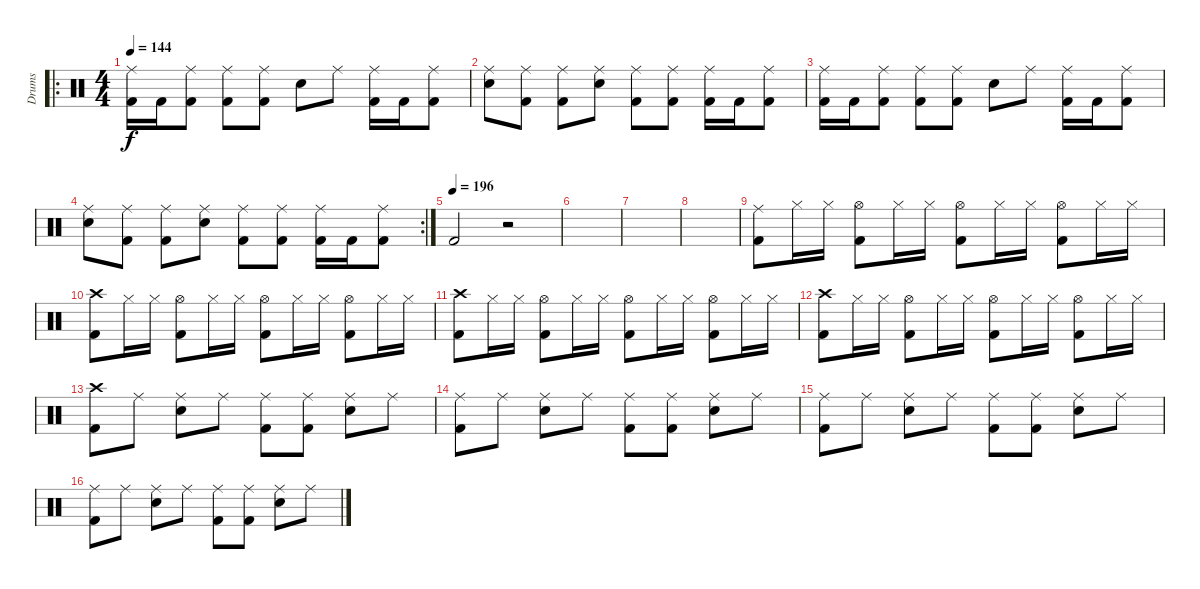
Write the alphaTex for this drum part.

\track ("Drums" "Drums") {instrument percussion}
\staff {score}
\articulation defaults
\ro
\ts (4 4)
\tempo 144
\clef neutral
\ks c
("Kick (hit) 2" "Ride (middle)").16{dy f} "Kick (hit) 2".16 ("Kick (hit) 2" "Ride (middle)").8 ("Kick (hit) 2" "Ride (middle)").8 ("Kick (hit) 2" "Ride (middle)").8 "Snare (hit) 2".8 "Ride (middle)".8 ("Kick (hit) 2" "Ride (middle)").16 "Kick (hit) 2".16 ("Kick (hit) 2" "Ride (middle)").8 |
("Snare (hit) 2" "Ride (middle)").8 ("Kick (hit) 2" "Ride (middle)").8 ("Kick (hit) 2" "Ride (middle)").8 ("Snare (hit) 2" "Ride (middle)").8 ("Kick (hit) 2" "Ride (middle)").8 ("Kick (hit) 2" "Ride (middle)").8 ("Kick (hit) 2" "Ride (middle)").16 "Kick (hit) 2".16 ("Kick (hit) 2" "Ride (middle)").8 |
("Kick (hit) 2" "Ride (middle)").16 "Kick (hit) 2".16 ("Kick (hit) 2" "Ride (middle)").8 ("Kick (hit) 2" "Ride (middle)").8 ("Kick (hit) 2" "Ride (middle)").8 "Snare (hit) 2".8 "Ride (middle)".8 ("Kick (hit) 2" "Ride (middle)").16 "Kick (hit) 2".16 ("Kick (hit) 2" "Ride (middle)").8 |
\rc 2
("Snare (hit) 2" "Ride (middle)").8 ("Kick (hit) 2" "Ride (middle)").8 ("Kick (hit) 2" "Ride (middle)").8 ("Snare (hit) 2" "Ride (middle)").8 ("Kick (hit) 2" "Ride (middle)").8 ("Kick (hit) 2" "Ride (middle)").8 ("Kick (hit) 2" "Ride (middle)").16 "Kick (hit) 2".16 ("Kick (hit) 2" "Ride (middle)").8 |
\tempo (196)
"Kick (hit) 2".2 r.2 |
|
|
|
("Kick (hit) 2" "Ride (middle)").8 "Hi-Hat (closed)".16 "Hi-Hat (closed)".16 ("Kick (hit) 2" "Hi-Hat (open)").8 "Hi-Hat (closed)".16 "Hi-Hat (closed)".16 ("Kick (hit) 2" "Hi-Hat (open)").8 "Hi-Hat (closed)".16 "Hi-Hat (closed)".16 ("Kick (hit) 2" "Hi-Hat (open)").8 "Hi-Hat (closed)".16 "Hi-Hat (closed)".16 |
("Kick (hit) 2" "Crash high (hit)").8 "Hi-Hat (closed)".16 "Hi-Hat (closed)".16 ("Kick (hit) 2" "Hi-Hat (open)").8 "Hi-Hat (closed)".16 "Hi-Hat (closed)".16 ("Kick (hit) 2" "Hi-Hat (open)").8 "Hi-Hat (closed)".16 "Hi-Hat (closed)".16 ("Kick (hit) 2" "Hi-Hat (open)").8 "Hi-Hat (closed)".16 "Hi-Hat (closed)".16 |
("Kick (hit) 2" "Crash high (hit)").8 "Hi-Hat (closed)".16 "Hi-Hat (closed)".16 ("Kick (hit) 2" "Hi-Hat (open)").8 "Hi-Hat (closed)".16 "Hi-Hat (closed)".16 ("Kick (hit) 2" "Hi-Hat (open)").8 "Hi-Hat (closed)".16 "Hi-Hat (closed)".16 ("Kick (hit) 2" "Hi-Hat (open)").8 "Hi-Hat (closed)".16 "Hi-Hat (closed)".16 |
("Kick (hit) 2" "Crash high (hit)").8 "Hi-Hat (closed)".16 "Hi-Hat (closed)".16 ("Kick (hit) 2" "Hi-Hat (open)").8 "Hi-Hat (closed)".16 "Hi-Hat (closed)".16 ("Kick (hit) 2" "Hi-Hat (open)").8 "Hi-Hat (closed)".16 "Hi-Hat (closed)".16 ("Kick (hit) 2" "Hi-Hat (open)").8 "Hi-Hat (closed)".16 "Hi-Hat (closed)".16 |
("Kick (hit) 2" "Crash high (hit)").8 "Ride (middle)".8 ("Snare (hit) 2" "Ride (middle)").8 "Ride (middle)".8 ("Kick (hit) 2" "Ride (middle)").8 ("Kick (hit) 2" "Ride (middle)").8 ("Snare (hit) 2" "Ride (middle)").8 "Ride (middle)".8 |
("Kick (hit) 2" "Ride (middle)").8 "Ride (middle)".8 ("Snare (hit) 2" "Ride (middle)").8 "Ride (middle)".8 ("Kick (hit) 2" "Ride (middle)").8 ("Kick (hit) 2" "Ride (middle)").8 ("Snare (hit) 2" "Ride (middle)").8 "Ride (middle)".8 |
("Kick (hit) 2" "Ride (middle)").8 "Ride (middle)".8 ("Snare (hit) 2" "Ride (middle)").8 "Ride (middle)".8 ("Kick (hit) 2" "Ride (middle)").8 ("Kick (hit) 2" "Ride (middle)").8 ("Snare (hit) 2" "Ride (middle)").8 "Ride (middle)".8 |
("Kick (hit) 2" "Ride (middle)").8 "Ride (middle)".8 ("Snare (hit) 2" "Ride (middle)").8 "Ride (middle)".8 ("Kick (hit) 2" "Ride (middle)").8 ("Kick (hit) 2" "Ride (middle)").8 ("Snare (hit) 2" "Ride (middle)").8 "Ride (middle)".8
